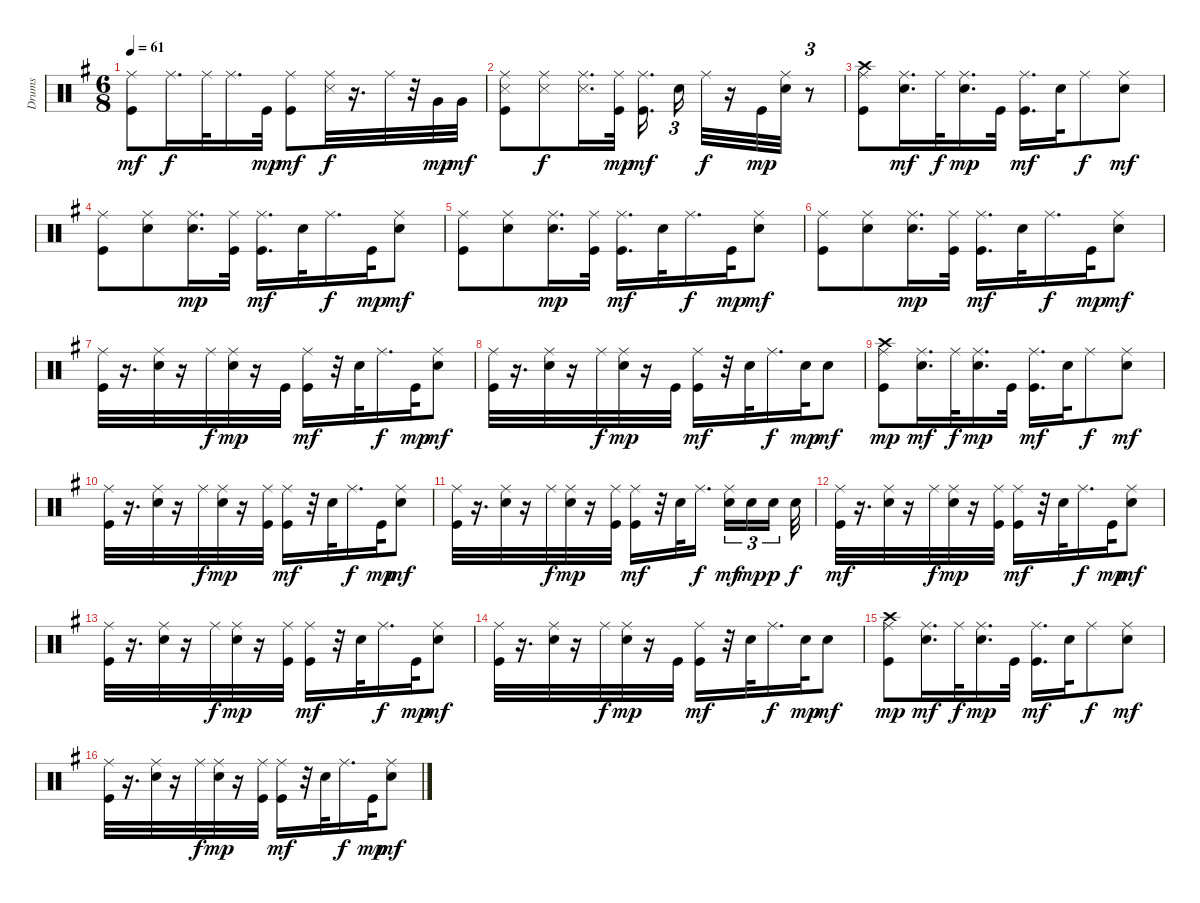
\track ("Drums" "Drums") {instrument percussion}
\staff {score}
\articulation defaults
\ts (6 8)
\tempo 61
\clef neutral
\ks g
("Kick (hit)" "Ride (middle)").8{dy mf} "Ride (middle)".16{d dy f} "Ride (middle)".32 "Ride (middle)".16{d} "Kick (hit)".32{dy mp} ("Kick (hit)" "Ride (middle)").8{dy mf} ("Snare (side stick) 3" "Ride (middle)").32{dy f} r.16{d} "Ride (middle)".32 r.32 "Very Low Tom (hit)".32{dy mp} "Very Low Tom (hit)".32{dy mf} |
("Kick (hit)" "Snare (side stick) 3" "Ride (middle)").8 ("Snare (side stick) 3" "Ride (middle)").8{dy f} ("Snare (side stick) 3" "Ride (middle)").16{d} ("Kick (hit)" "Ride (middle)").32{dy mp} ("Kick (hit)" "Ride (middle)").16{d dy mf beam splitsecondary} "Snare (hit) 2".16{tu (3 2)} "Ride (middle)".32{dy f} r.16 "Kick (hit)".32{dy mp} ("Snare (hit) 2" "Ride (middle)").32 r.8{tu (3 2)} |
("Kick (hit)" "Crash high (hit)" "Ride (middle)").8 ("Snare (hit) 2" "Ride (middle)").16{d dy mf} "Ride (middle)".32{dy f} ("Snare (hit) 2" "Ride (middle)").16{d dy mp} "Kick (hit)".32 ("Kick (hit)" "Ride (middle)").16{d dy mf} "Snare (hit) 2".32 "Ride (middle)".8{dy f} ("Snare (hit) 2" "Ride (middle)").8{dy mf} |
("Kick (hit)" "Ride (middle)").8 ("Snare (hit) 2" "Ride (middle)").8 ("Snare (hit) 2" "Ride (middle)").16{d dy mp} ("Kick (hit)" "Ride (middle)").32 ("Kick (hit)" "Ride (middle)").16{d dy mf} "Snare (hit) 2".32 "Ride (middle)".16{d dy f} "Kick (hit)".32{dy mp} ("Snare (hit) 2" "Ride (middle)").8{dy mf} |
("Kick (hit)" "Ride (middle)").8 ("Snare (hit) 2" "Ride (middle)").8 ("Snare (hit) 2" "Ride (middle)").16{d dy mp} ("Kick (hit)" "Ride (middle)").32 ("Kick (hit)" "Ride (middle)").16{d dy mf} "Snare (hit) 2".32 "Ride (middle)".16{d dy f} "Kick (hit)".32{dy mp} ("Snare (hit) 2" "Ride (middle)").8{dy mf} |
("Kick (hit)" "Ride (middle)").8 ("Snare (hit) 2" "Ride (middle)").8 ("Snare (hit) 2" "Ride (middle)").16{d dy mp} ("Kick (hit)" "Ride (middle)").32 ("Kick (hit)" "Ride (middle)").16{d dy mf} "Snare (hit) 2".32 "Ride (middle)".16{d dy f} "Kick (hit)".32{dy mp} ("Snare (hit) 2" "Ride (middle)").8{dy mf} |
("Kick (hit)" "Ride (middle)").32 r.16{d} ("Snare (hit) 2" "Ride (middle)").32 r.16 "Ride (middle)".32{dy f} ("Snare (hit) 2" "Ride (middle)").32{dy mp} r.16 "Kick (hit)".32 ("Kick (hit)" "Ride (middle)").16{dy mf} r.32 "Snare (hit) 2".32 "Ride (middle)".16{d dy f} "Kick (hit)".32{dy mp} ("Snare (hit) 2" "Ride (middle)").8{dy mf} |
("Kick (hit)" "Ride (middle)").32 r.16{d} ("Snare (hit) 2" "Ride (middle)").32 r.16 "Ride (middle)".32{dy f} ("Snare (hit) 2" "Ride (middle)").32{dy mp} r.16 "Kick (hit)".32 ("Kick (hit)" "Ride (middle)").16{dy mf} r.32 "Snare (hit) 2".32 "Ride (middle)".16{d dy f} "Electric Snare (hit)".32{dy mp} "Electric Snare (hit)".8{dy mf} |
("Kick (hit)" "Crash high (hit)" "Ride (middle)").8{dy mp} ("Snare (hit) 2" "Ride (middle)").16{d dy mf} "Ride (middle)".32{dy f} ("Snare (hit) 2" "Ride (middle)").16{d dy mp} "Kick (hit)".32 ("Kick (hit)" "Ride (middle)").16{d dy mf} "Snare (hit) 2".32 "Ride (middle)".8{dy f} ("Snare (hit) 2" "Ride (middle)").8{dy mf} |
("Kick (hit)" "Ride (middle)").32 r.16{d} ("Snare (hit) 2" "Ride (middle)").32 r.16 "Ride (middle)".32{dy f} ("Snare (hit) 2" "Ride (middle)").32{dy mp} r.16 ("Kick (hit)" "Ride (middle)").32 ("Kick (hit)" "Ride (middle)").16{dy mf} r.32 "Snare (hit) 2".32 "Ride (middle)".16{d dy f} "Kick (hit)".32{dy mp} ("Snare (hit) 2" "Ride (middle)").8{dy mf} |
("Kick (hit)" "Ride (middle)").32 r.16{d} ("Snare (hit) 2" "Ride (middle)").32 r.16 "Ride (middle)".32{dy f} ("Snare (hit) 2" "Ride (middle)").32{dy mp} r.16 ("Kick (hit)" "Ride (middle)").32 ("Kick (hit)" "Ride (middle)").16{dy mf} r.32 "Snare (hit) 2".32 "Ride (middle)".16{d dy f beam splitsecondary} ("Electric Snare (hit)" "Ride (middle)").16{tu (3 2) dy mf} "Electric Snare (hit)".16{tu (3 2) dy mp} "Electric Snare (hit)".16{tu (3 2) dy p beam splitsecondary} "Electric Snare (hit)".32{dy f} |
("Kick (hit)" "Ride (middle)").32{dy mf} r.16{d} ("Snare (hit) 2" "Ride (middle)").32 r.16 "Ride (middle)".32{dy f} ("Snare (hit) 2" "Ride (middle)").32{dy mp} r.16 ("Kick (hit)" "Ride (middle)").32 ("Kick (hit)" "Ride (middle)").16{dy mf} r.32 "Snare (hit) 2".32 "Ride (middle)".16{d dy f} "Kick (hit)".32{dy mp} ("Snare (hit) 2" "Ride (middle)").8{dy mf} |
("Kick (hit)" "Ride (middle)").32 r.16{d} ("Snare (hit) 2" "Ride (middle)").32 r.16 "Ride (middle)".32{dy f} ("Snare (hit) 2" "Ride (middle)").32{dy mp} r.16 ("Kick (hit)" "Ride (middle)").32 ("Kick (hit)" "Ride (middle)").16{dy mf} r.32 "Snare (hit) 2".32 "Ride (middle)".16{d dy f} "Kick (hit)".32{dy mp} ("Snare (hit) 2" "Ride (middle)").8{dy mf} |
("Kick (hit)" "Ride (middle)").32 r.16{d} ("Snare (hit) 2" "Ride (middle)").32 r.16 "Ride (middle)".32{dy f} ("Snare (hit) 2" "Ride (middle)").32{dy mp} r.16 "Kick (hit)".32 ("Kick (hit)" "Ride (middle)").16{dy mf} r.32 "Snare (hit) 2".32 "Ride (middle)".16{d dy f} "Electric Snare (hit)".32{dy mp} "Electric Snare (hit)".8{dy mf} |
("Kick (hit)" "Crash high (hit)" "Ride (middle)").8{dy mp} ("Snare (hit) 2" "Ride (middle)").16{d dy mf} "Ride (middle)".32{dy f} ("Snare (hit) 2" "Ride (middle)").16{d dy mp} "Kick (hit)".32 ("Kick (hit)" "Ride (middle)").16{d dy mf} "Snare (hit) 2".32 "Ride (middle)".8{dy f} ("Snare (hit) 2" "Ride (middle)").8{dy mf} |
("Kick (hit)" "Ride (middle)").32 r.16{d} ("Snare (hit) 2" "Ride (middle)").32 r.16 "Ride (middle)".32{dy f} ("Snare (hit) 2" "Ride (middle)").32{dy mp} r.16 ("Kick (hit)" "Ride (middle)").32 ("Kick (hit)" "Ride (middle)").16{dy mf} r.32 "Snare (hit) 2".32 "Ride (middle)".16{d dy f} "Kick (hit)".32{dy mp} ("Snare (hit) 2" "Ride (middle)").8{dy mf}
